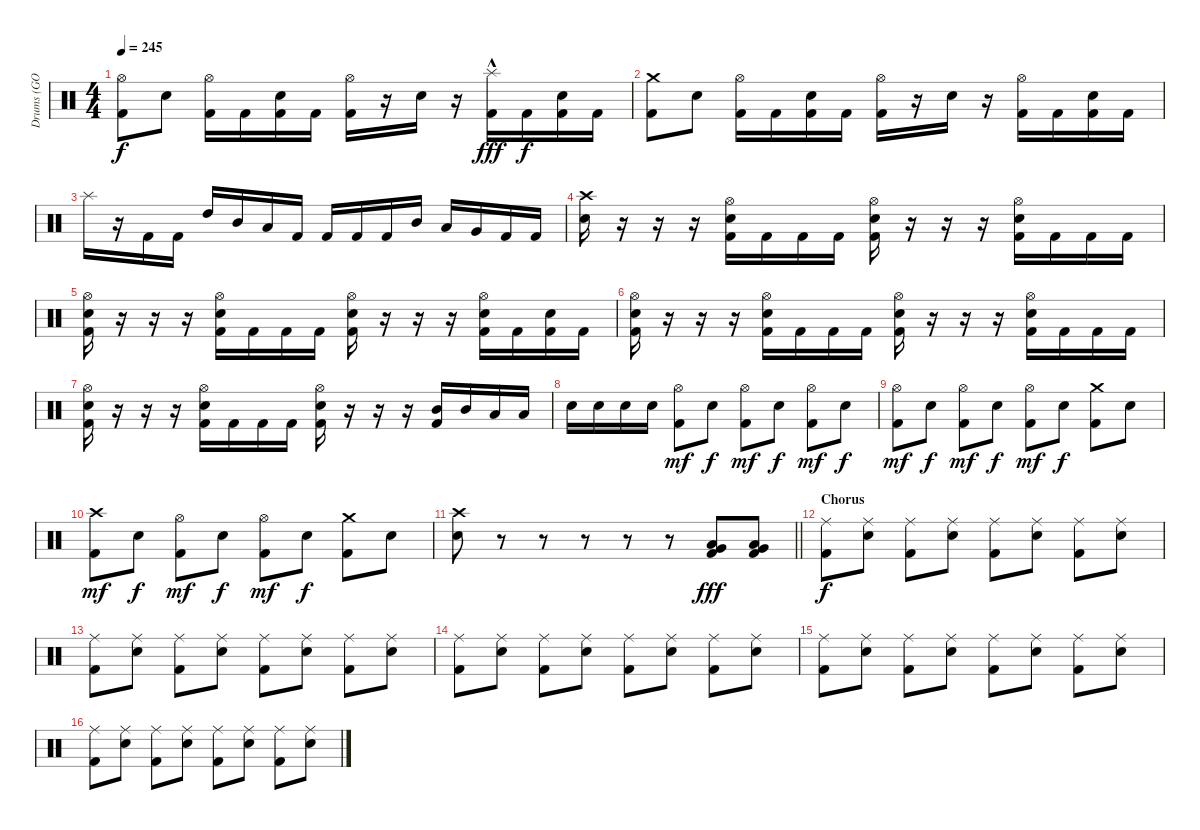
\track ("Drums (GO DIRK)" "Drums (GO ") {instrument percussion}
\staff {score}
\articulation defaults
\ts (4 4)
\tempo 245
\clef neutral
\ks c
("Hi-Hat (open)" "Kick (hit) 2").8{dy f} "Electric Snare (hit)".8 ("Hi-Hat (open)" "Kick (hit) 2").16 "Kick (hit) 2".16 ("Electric Snare (hit)" "Kick (hit) 2").16 "Kick (hit) 2".16 ("Hi-Hat (open)" "Kick (hit) 2").16 r.16 "Electric Snare (hit)".16 r.16 ("Splash (hit)"{hac} "Kick (hit) 2").16{dy fff} "Kick (hit) 2".16{dy f} ("Electric Snare (hit)" "Kick (hit) 2").16 "Kick (hit) 2".16 |
("Crash medium (hit)" "Kick (hit) 2").8 "Electric Snare (hit)".8 ("Hi-Hat (open)" "Kick (hit) 2").16 "Kick (hit) 2".16 ("Electric Snare (hit)" "Kick (hit) 2").16 "Kick (hit) 2".16 ("Hi-Hat (open)" "Kick (hit) 2").16 r.16 "Electric Snare (hit)".16 r.16 ("Hi-Hat (open)" "Kick (hit) 2").16 "Kick (hit) 2".16 ("Electric Snare (hit)" "Kick (hit) 2").16 "Kick (hit) 2".16 |
"Splash (hit)".16 r.16 "Kick (hit) 2".16 "Kick (hit) 2".16 "High Tom (hit)".16 "Mid Tom (hit)".16 "Low Tom (hit)".16 "Kick (hit) 2".16 "Kick (hit) 2".16 "Kick (hit) 2".16 "Kick (hit) 2".16 "Mid Tom (hit)".16 "Low Tom (hit)".16 "Very Low Tom (hit)".16 "Kick (hit) 2".16 "Kick (hit) 2".16 |
("Crash high (hit)" "Electric Snare (hit)").16 r.16 r.16 r.16 ("Hi-Hat (open)" "Electric Snare (hit)" "Kick (hit) 2").16 "Kick (hit) 2".16 "Kick (hit) 2".16 "Kick (hit) 2".16 ("Hi-Hat (open)" "Electric Snare (hit)" "Kick (hit) 2").16 r.16 r.16 r.16 ("Hi-Hat (open)" "Electric Snare (hit)" "Kick (hit) 2").16 "Kick (hit) 2".16 "Kick (hit) 2".16 "Kick (hit) 2".16 |
("Hi-Hat (open)" "Electric Snare (hit)" "Kick (hit) 2").16 r.16 r.16 r.16 ("Hi-Hat (open)" "Electric Snare (hit)" "Kick (hit) 2").16 "Kick (hit) 2".16 "Kick (hit) 2".16 "Kick (hit) 2".16 ("Hi-Hat (open)" "Electric Snare (hit)" "Kick (hit) 2").16 r.16 r.16 r.16 ("Hi-Hat (open)" "Electric Snare (hit)" "Kick (hit) 2").16 "Kick (hit) 2".16 ("Electric Snare (hit)" "Kick (hit) 2").16 "Kick (hit) 2".16 |
("Hi-Hat (open)" "Electric Snare (hit)" "Kick (hit) 2").16 r.16 r.16 r.16 ("Hi-Hat (open)" "Electric Snare (hit)" "Kick (hit) 2").16 "Kick (hit) 2".16 "Kick (hit) 2".16 "Kick (hit) 2".16 ("Hi-Hat (open)" "Electric Snare (hit)" "Kick (hit) 2").16 r.16 r.16 r.16 ("Hi-Hat (open)" "Electric Snare (hit)" "Kick (hit) 2").16 "Kick (hit) 2".16 "Kick (hit) 2".16 "Kick (hit) 2".16 |
("Hi-Hat (open)" "Electric Snare (hit)" "Kick (hit) 2").16 r.16 r.16 r.16 ("Hi-Hat (open)" "Electric Snare (hit)" "Kick (hit) 2").16 "Kick (hit) 2".16 "Kick (hit) 2".16 "Kick (hit) 2".16 ("Hi-Hat (open)" "Electric Snare (hit)" "Kick (hit) 2").16 r.16 r.16 r.16 ("Mid Tom (hit)" "Kick (hit) 2").16 "Mid Tom (hit)".16 "Low Tom (hit)".16 "Low Tom (hit)".16 |
"Electric Snare (hit)".16 "Electric Snare (hit)".16 "Electric Snare (hit)".16 "Electric Snare (hit)".16 ("Hi-Hat (open)" "Kick (hit) 2").8{dy mf} "Electric Snare (hit)".8{dy f} ("Hi-Hat (open)" "Kick (hit) 2").8{dy mf} "Electric Snare (hit)".8{dy f} ("Hi-Hat (open)" "Kick (hit) 2").8{dy mf} "Electric Snare (hit)".8{dy f} |
("Hi-Hat (open)" "Kick (hit) 2").8{dy mf} "Electric Snare (hit)".8{dy f} ("Hi-Hat (open)" "Kick (hit) 2").8{dy mf} "Electric Snare (hit)".8{dy f} ("Hi-Hat (open)" "Kick (hit) 2").8{dy mf} "Electric Snare (hit)".8{dy f} ("Crash medium (hit)" "Kick (hit) 2").8 "Electric Snare (hit)".8 |
("Crash high (hit)" "Kick (hit) 2").8{dy mf} "Electric Snare (hit)".8{dy f} ("Hi-Hat (open)" "Kick (hit) 2").8{dy mf} "Electric Snare (hit)".8{dy f} ("Hi-Hat (open)" "Kick (hit) 2").8{dy mf} "Electric Snare (hit)".8{dy f} ("Crash medium (hit)" "Kick (hit) 2").8 "Electric Snare (hit)".8 |
\barLineRight lightlight
("Crash high (hit)" "Electric Snare (hit)").8 r.8 r.8 r.8 r.8 r.8 ("Low Tom (hit)" "Very Low Tom (hit)" "Kick (hit) 2").8{dy fff} ("Low Tom (hit)" "Very Low Tom (hit)" "Kick (hit) 2").8 |
\section ("" "Chorus")
("Ride (middle)" "Kick (hit) 2").8{dy f} ("Ride (middle)" "Electric Snare (hit)").8 ("Ride (middle)" "Kick (hit) 2").8 ("Ride (middle)" "Electric Snare (hit)").8 ("Ride (middle)" "Kick (hit) 2").8 ("Ride (middle)" "Electric Snare (hit)").8 ("Ride (middle)" "Kick (hit) 2").8 ("Ride (middle)" "Electric Snare (hit)").8 |
("Ride (middle)" "Kick (hit) 2").8 ("Ride (middle)" "Electric Snare (hit)").8 ("Ride (middle)" "Kick (hit) 2").8 ("Ride (middle)" "Electric Snare (hit)").8 ("Ride (middle)" "Kick (hit) 2").8 ("Ride (middle)" "Electric Snare (hit)").8 ("Ride (middle)" "Kick (hit) 2").8 ("Ride (middle)" "Electric Snare (hit)").8 |
("Ride (middle)" "Kick (hit) 2").8 ("Ride (middle)" "Electric Snare (hit)").8 ("Ride (middle)" "Kick (hit) 2").8 ("Ride (middle)" "Electric Snare (hit)").8 ("Ride (middle)" "Kick (hit) 2").8 ("Ride (middle)" "Electric Snare (hit)").8 ("Ride (middle)" "Kick (hit) 2").8 ("Ride (middle)" "Electric Snare (hit)").8 |
("Ride (middle)" "Kick (hit) 2").8 ("Ride (middle)" "Electric Snare (hit)").8 ("Ride (middle)" "Kick (hit) 2").8 ("Ride (middle)" "Electric Snare (hit)").8 ("Ride (middle)" "Kick (hit) 2").8 ("Ride (middle)" "Electric Snare (hit)").8 ("Ride (middle)" "Kick (hit) 2").8 ("Ride (middle)" "Electric Snare (hit)").8 |
("Ride (middle)" "Kick (hit) 2").8 ("Ride (middle)" "Electric Snare (hit)").8 ("Ride (middle)" "Kick (hit) 2").8 ("Ride (middle)" "Electric Snare (hit)").8 ("Ride (middle)" "Kick (hit) 2").8 ("Ride (middle)" "Electric Snare (hit)").8 ("Ride (middle)" "Kick (hit) 2").8 ("Ride (middle)" "Electric Snare (hit)").8
